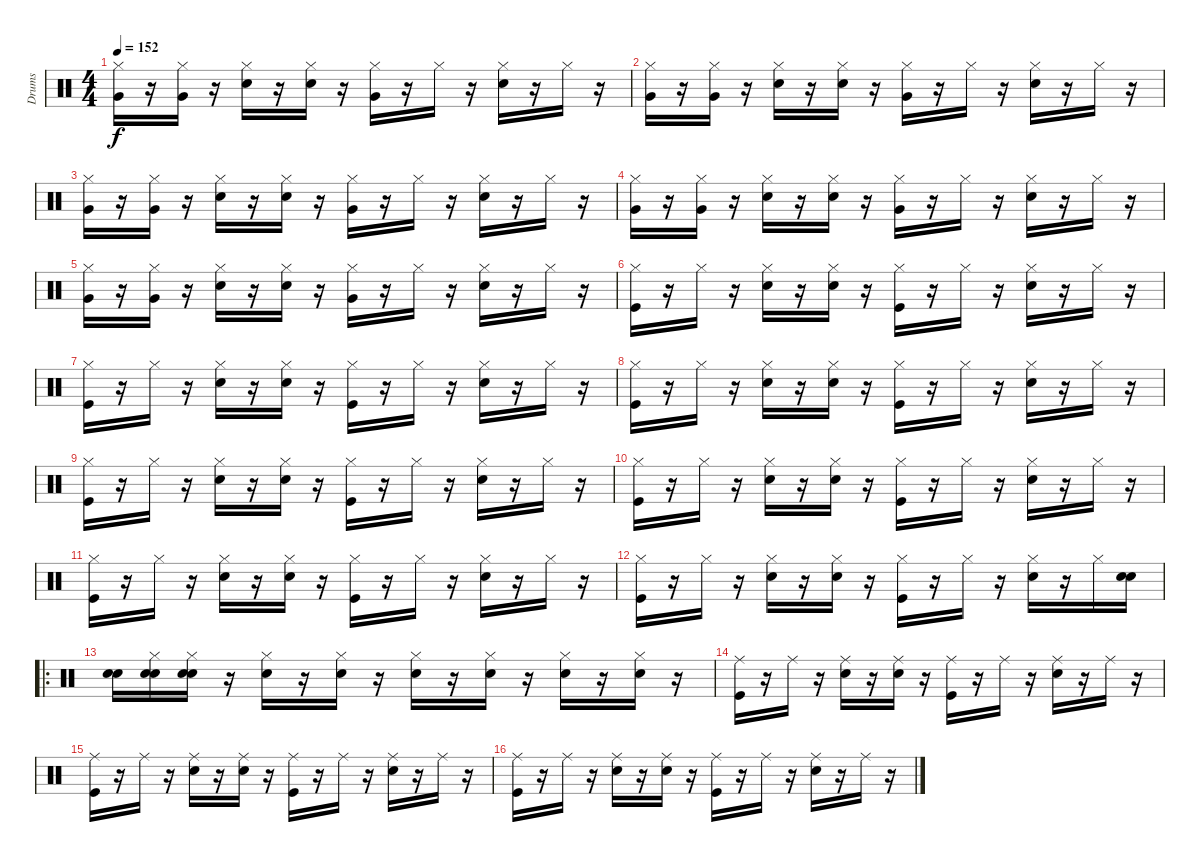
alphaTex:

\track ("Drums               " "Drums     ") {instrument percussion}
\staff {score}
\articulation defaults
\ts (4 4)
\tempo 152
\clef neutral
\ks c
("Very Low Tom (hit)" "Hi-Hat (closed)").16{dy f} r.16 ("Very Low Tom (hit)" "Hi-Hat (closed)").16 r.16 ("Electric Snare (hit)" "Hi-Hat (closed)").16 r.16 ("Electric Snare (hit)" "Hi-Hat (closed)").16 r.16 ("Hi-Hat (closed)" "Very Low Tom (hit)").16 r.16 "Hi-Hat (closed)".16 r.16 ("Electric Snare (hit)" "Hi-Hat (closed)").16 r.16 "Hi-Hat (closed)".16 r.16 |
("Hi-Hat (closed)" "Very Low Tom (hit)").16 r.16 ("Very Low Tom (hit)" "Hi-Hat (closed)").16 r.16 ("Electric Snare (hit)" "Hi-Hat (closed)").16 r.16 ("Electric Snare (hit)" "Hi-Hat (closed)").16 r.16 ("Very Low Tom (hit)" "Hi-Hat (closed)").16 r.16 "Hi-Hat (closed)".16 r.16 ("Electric Snare (hit)" "Hi-Hat (closed)").16 r.16 "Hi-Hat (closed)".16 r.16 |
("Hi-Hat (closed)" "Very Low Tom (hit)").16 r.16 ("Very Low Tom (hit)" "Hi-Hat (closed)").16 r.16 ("Electric Snare (hit)" "Hi-Hat (closed)").16 r.16 ("Electric Snare (hit)" "Hi-Hat (closed)").16 r.16 ("Very Low Tom (hit)" "Hi-Hat (closed)").16 r.16 "Hi-Hat (closed)".16 r.16 ("Electric Snare (hit)" "Hi-Hat (closed)").16 r.16 "Hi-Hat (closed)".16 r.16 |
("Hi-Hat (closed)" "Very Low Tom (hit)").16 r.16 ("Very Low Tom (hit)" "Hi-Hat (closed)").16 r.16 ("Electric Snare (hit)" "Hi-Hat (closed)").16 r.16 ("Hi-Hat (closed)" "Electric Snare (hit)").16 r.16 ("Very Low Tom (hit)" "Hi-Hat (closed)").16 r.16 "Hi-Hat (closed)".16 r.16 ("Electric Snare (hit)" "Hi-Hat (closed)").16 r.16 "Hi-Hat (closed)".16 r.16 |
("Very Low Tom (hit)" "Hi-Hat (closed)").16 r.16 ("Very Low Tom (hit)" "Hi-Hat (closed)").16 r.16 ("Electric Snare (hit)" "Hi-Hat (closed)").16 r.16 ("Electric Snare (hit)" "Hi-Hat (closed)").16 r.16 ("Very Low Tom (hit)" "Hi-Hat (closed)").16 r.16 "Hi-Hat (closed)".16 r.16 ("Hi-Hat (closed)" "Electric Snare (hit)").16 r.16 "Hi-Hat (closed)".16 r.16 |
("Kick (hit)" "Hi-Hat (closed)").16 r.16 "Hi-Hat (closed)".16 r.16 ("Electric Snare (hit)" "Hi-Hat (closed)").16 r.16 ("Electric Snare (hit)" "Hi-Hat (closed)").16 r.16 ("Kick (hit)" "Hi-Hat (closed)").16 r.16 "Hi-Hat (closed)".16 r.16 ("Electric Snare (hit)" "Hi-Hat (closed)").16 r.16 "Hi-Hat (closed)".16 r.16 |
("Kick (hit)" "Hi-Hat (closed)").16 r.16 "Hi-Hat (closed)".16 r.16 ("Electric Snare (hit)" "Hi-Hat (closed)").16 r.16 ("Electric Snare (hit)" "Hi-Hat (closed)").16 r.16 ("Kick (hit)" "Hi-Hat (closed)").16 r.16 "Hi-Hat (closed)".16 r.16 ("Electric Snare (hit)" "Hi-Hat (closed)").16 r.16 "Hi-Hat (closed)".16 r.16 |
("Kick (hit)" "Hi-Hat (closed)").16 r.16 "Hi-Hat (closed)".16 r.16 ("Electric Snare (hit)" "Hi-Hat (closed)").16 r.16 ("Electric Snare (hit)" "Hi-Hat (closed)").16 r.16 ("Hi-Hat (closed)" "Kick (hit)").16 r.16 "Hi-Hat (closed)".16 r.16 ("Electric Snare (hit)" "Hi-Hat (closed)").16 r.16 "Hi-Hat (closed)".16 r.16 |
("Kick (hit)" "Hi-Hat (closed)").16 r.16 "Hi-Hat (closed)".16 r.16 ("Electric Snare (hit)" "Hi-Hat (closed)").16 r.16 ("Electric Snare (hit)" "Hi-Hat (closed)").16 r.16 ("Kick (hit)" "Hi-Hat (closed)").16 r.16 "Hi-Hat (closed)".16 r.16 ("Electric Snare (hit)" "Hi-Hat (closed)").16 r.16 "Hi-Hat (closed)".16 r.16 |
("Kick (hit)" "Hi-Hat (closed)").16 r.16 "Hi-Hat (closed)".16 r.16 ("Electric Snare (hit)" "Hi-Hat (closed)").16 r.16 ("Electric Snare (hit)" "Hi-Hat (closed)").16 r.16 ("Kick (hit)" "Hi-Hat (closed)").16 r.16 "Hi-Hat (closed)".16 r.16 ("Electric Snare (hit)" "Hi-Hat (closed)").16 r.16 "Hi-Hat (closed)".16 r.16 |
("Kick (hit)" "Hi-Hat (closed)").16 r.16 "Hi-Hat (closed)".16 r.16 ("Hi-Hat (closed)" "Electric Snare (hit)").16 r.16 ("Electric Snare (hit)" "Hi-Hat (closed)").16 r.16 ("Kick (hit)" "Hi-Hat (closed)").16 r.16 "Hi-Hat (closed)".16 r.16 ("Electric Snare (hit)" "Hi-Hat (closed)").16 r.16 "Hi-Hat (closed)".16 r.16 |
("Kick (hit)" "Hi-Hat (closed)").16 r.16 "Hi-Hat (closed)".16 r.16 ("Electric Snare (hit)" "Hi-Hat (closed)").16 r.16 ("Electric Snare (hit)" "Hi-Hat (closed)").16 r.16 ("Kick (hit)" "Hi-Hat (closed)").16 r.16 "Hi-Hat (closed)".16 r.16 ("Electric Snare (hit)" "Hi-Hat (closed)").16 r.16 "Hi-Hat (closed)".16 ("Snare (hit)" "Electric Snare (hit)").16 |
\ro
("Snare (hit)" "Electric Snare (hit)").16 ("Snare (hit)" "Electric Snare (hit)" "Hi-Hat (closed)").16 ("Snare (hit)" "Electric Snare (hit)" "Hi-Hat (closed)").16 r.16 ("Electric Snare (hit)" "Hi-Hat (closed)").16 r.16 ("Electric Snare (hit)" "Hi-Hat (closed)").16 r.16 ("Electric Snare (hit)" "Hi-Hat (closed)").16 r.16 ("Electric Snare (hit)" "Hi-Hat (closed)").16 r.16 ("Electric Snare (hit)" "Hi-Hat (closed)").16 r.16 ("Electric Snare (hit)" "Hi-Hat (closed)").16 r.16 |
("Ride (middle)" "Kick (hit)").16 r.16 "Ride (middle)".16 r.16 ("Electric Snare (hit)" "Ride (middle)").16 r.16 ("Electric Snare (hit)" "Ride (middle)").16 r.16 ("Kick (hit)" "Ride (middle)").16 r.16 "Ride (middle)".16 r.16 ("Electric Snare (hit)" "Ride (middle)").16 r.16 "Ride (middle)".16 r.16 |
("Kick (hit)" "Ride (middle)").16 r.16 "Ride (middle)".16 r.16 ("Electric Snare (hit)" "Ride (middle)").16 r.16 ("Ride (middle)" "Electric Snare (hit)").16 r.16 ("Kick (hit)" "Ride (middle)").16 r.16 "Ride (middle)".16 r.16 ("Electric Snare (hit)" "Ride (middle)").16 r.16 "Ride (middle)".16 r.16 |
("Kick (hit)" "Ride (middle)").16 r.16 "Ride (middle)".16 r.16 ("Electric Snare (hit)" "Ride (middle)").16 r.16 ("Electric Snare (hit)" "Ride (middle)").16 r.16 ("Kick (hit)" "Ride (middle)").16 r.16 "Ride (middle)".16 r.16 ("Ride (middle)" "Electric Snare (hit)").16 r.16 "Ride (middle)".16 r.16
